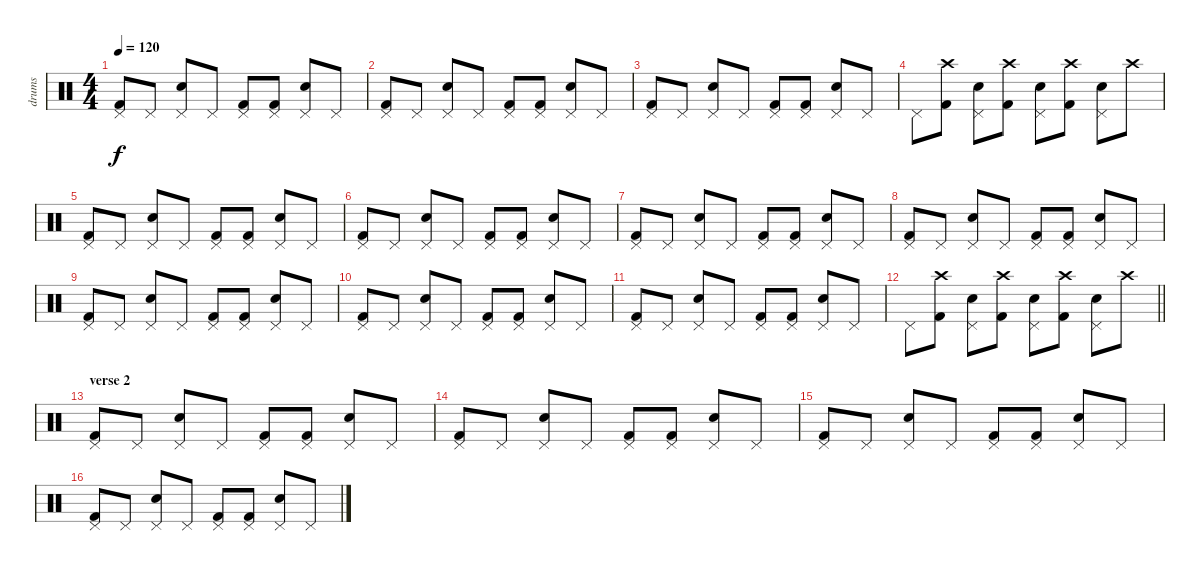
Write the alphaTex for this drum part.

\track ("drums" "drums") {instrument percussion}
\staff {score}
\articulation defaults
\ts (4 4)
\tempo 120
\clef neutral
\ks c
("Kick (hit) 2" "Pedal Hi-Hat (hit)").8{dy f} "Pedal Hi-Hat (hit)".8 ("Electric Snare (hit)" "Pedal Hi-Hat (hit)").8 "Pedal Hi-Hat (hit)".8 ("Kick (hit) 2" "Pedal Hi-Hat (hit)").8 ("Kick (hit) 2" "Pedal Hi-Hat (hit)").8 ("Electric Snare (hit)" "Pedal Hi-Hat (hit)").8 "Pedal Hi-Hat (hit)".8 |
("Kick (hit) 2" "Pedal Hi-Hat (hit)").8 "Pedal Hi-Hat (hit)".8 ("Electric Snare (hit)" "Pedal Hi-Hat (hit)").8 "Pedal Hi-Hat (hit)".8 ("Kick (hit) 2" "Pedal Hi-Hat (hit)").8 ("Kick (hit) 2" "Pedal Hi-Hat (hit)").8 ("Electric Snare (hit)" "Pedal Hi-Hat (hit)").8 "Pedal Hi-Hat (hit)".8 |
("Kick (hit) 2" "Pedal Hi-Hat (hit)").8 "Pedal Hi-Hat (hit)".8 ("Electric Snare (hit)" "Pedal Hi-Hat (hit)").8 "Pedal Hi-Hat (hit)".8 ("Kick (hit) 2" "Pedal Hi-Hat (hit)").8 ("Kick (hit) 2" "Pedal Hi-Hat (hit)").8 ("Electric Snare (hit)" "Pedal Hi-Hat (hit)").8 "Pedal Hi-Hat (hit)".8 |
"Pedal Hi-Hat (hit)".8 ("Kick (hit) 2" "Crash high (hit)").8 ("Electric Snare (hit)" "Pedal Hi-Hat (hit)").8 ("Kick (hit) 2" "Crash high (hit)").8 ("Electric Snare (hit)" "Pedal Hi-Hat (hit)").8 ("Kick (hit) 2" "Crash high (hit)").8 ("Electric Snare (hit)" "Pedal Hi-Hat (hit)").8 "Crash high (hit)".8 |
("Kick (hit) 2" "Pedal Hi-Hat (hit)").8 "Pedal Hi-Hat (hit)".8 ("Electric Snare (hit)" "Pedal Hi-Hat (hit)").8 "Pedal Hi-Hat (hit)".8 ("Kick (hit) 2" "Pedal Hi-Hat (hit)").8 ("Kick (hit) 2" "Pedal Hi-Hat (hit)").8 ("Electric Snare (hit)" "Pedal Hi-Hat (hit)").8 "Pedal Hi-Hat (hit)".8 |
("Kick (hit) 2" "Pedal Hi-Hat (hit)").8 "Pedal Hi-Hat (hit)".8 ("Electric Snare (hit)" "Pedal Hi-Hat (hit)").8 "Pedal Hi-Hat (hit)".8 ("Kick (hit) 2" "Pedal Hi-Hat (hit)").8 ("Kick (hit) 2" "Pedal Hi-Hat (hit)").8 ("Electric Snare (hit)" "Pedal Hi-Hat (hit)").8 "Pedal Hi-Hat (hit)".8 |
("Kick (hit) 2" "Pedal Hi-Hat (hit)").8 "Pedal Hi-Hat (hit)".8 ("Electric Snare (hit)" "Pedal Hi-Hat (hit)").8 "Pedal Hi-Hat (hit)".8 ("Kick (hit) 2" "Pedal Hi-Hat (hit)").8 ("Kick (hit) 2" "Pedal Hi-Hat (hit)").8 ("Electric Snare (hit)" "Pedal Hi-Hat (hit)").8 "Pedal Hi-Hat (hit)".8 |
("Kick (hit) 2" "Pedal Hi-Hat (hit)").8 "Pedal Hi-Hat (hit)".8 ("Electric Snare (hit)" "Pedal Hi-Hat (hit)").8 "Pedal Hi-Hat (hit)".8 ("Kick (hit) 2" "Pedal Hi-Hat (hit)").8 ("Kick (hit) 2" "Pedal Hi-Hat (hit)").8 ("Electric Snare (hit)" "Pedal Hi-Hat (hit)").8 "Pedal Hi-Hat (hit)".8 |
("Kick (hit) 2" "Pedal Hi-Hat (hit)").8 "Pedal Hi-Hat (hit)".8 ("Electric Snare (hit)" "Pedal Hi-Hat (hit)").8 "Pedal Hi-Hat (hit)".8 ("Kick (hit) 2" "Pedal Hi-Hat (hit)").8 ("Kick (hit) 2" "Pedal Hi-Hat (hit)").8 ("Electric Snare (hit)" "Pedal Hi-Hat (hit)").8 "Pedal Hi-Hat (hit)".8 |
("Kick (hit) 2" "Pedal Hi-Hat (hit)").8 "Pedal Hi-Hat (hit)".8 ("Electric Snare (hit)" "Pedal Hi-Hat (hit)").8 "Pedal Hi-Hat (hit)".8 ("Kick (hit) 2" "Pedal Hi-Hat (hit)").8 ("Kick (hit) 2" "Pedal Hi-Hat (hit)").8 ("Electric Snare (hit)" "Pedal Hi-Hat (hit)").8 "Pedal Hi-Hat (hit)".8 |
("Kick (hit) 2" "Pedal Hi-Hat (hit)").8 "Pedal Hi-Hat (hit)".8 ("Electric Snare (hit)" "Pedal Hi-Hat (hit)").8 "Pedal Hi-Hat (hit)".8 ("Kick (hit) 2" "Pedal Hi-Hat (hit)").8 ("Kick (hit) 2" "Pedal Hi-Hat (hit)").8 ("Electric Snare (hit)" "Pedal Hi-Hat (hit)").8 "Pedal Hi-Hat (hit)".8 |
\barLineRight lightlight "Pedal Hi-Hat (hit)".8
("Kick (hit) 2" "Crash high (hit)").8 ("Electric Snare (hit)" "Pedal Hi-Hat (hit)").8 ("Kick (hit) 2" "Crash high (hit)").8 ("Electric Snare (hit)" "Pedal Hi-Hat (hit)").8 ("Kick (hit) 2" "Crash high (hit)").8 ("Electric Snare (hit)" "Pedal Hi-Hat (hit)").8 "Crash high (hit)".8 |
\section ("" "verse 2")
("Kick (hit) 2" "Pedal Hi-Hat (hit)").8 "Pedal Hi-Hat (hit)".8 ("Electric Snare (hit)" "Pedal Hi-Hat (hit)").8 "Pedal Hi-Hat (hit)".8 ("Kick (hit) 2" "Pedal Hi-Hat (hit)").8 ("Kick (hit) 2" "Pedal Hi-Hat (hit)").8 ("Electric Snare (hit)" "Pedal Hi-Hat (hit)").8 "Pedal Hi-Hat (hit)".8 |
("Kick (hit) 2" "Pedal Hi-Hat (hit)").8 "Pedal Hi-Hat (hit)".8 ("Electric Snare (hit)" "Pedal Hi-Hat (hit)").8 "Pedal Hi-Hat (hit)".8 ("Kick (hit) 2" "Pedal Hi-Hat (hit)").8 ("Kick (hit) 2" "Pedal Hi-Hat (hit)").8 ("Electric Snare (hit)" "Pedal Hi-Hat (hit)").8 "Pedal Hi-Hat (hit)".8 |
("Kick (hit) 2" "Pedal Hi-Hat (hit)").8 "Pedal Hi-Hat (hit)".8 ("Electric Snare (hit)" "Pedal Hi-Hat (hit)").8 "Pedal Hi-Hat (hit)".8 ("Kick (hit) 2" "Pedal Hi-Hat (hit)").8 ("Kick (hit) 2" "Pedal Hi-Hat (hit)").8 ("Electric Snare (hit)" "Pedal Hi-Hat (hit)").8 "Pedal Hi-Hat (hit)".8 |
("Kick (hit) 2" "Pedal Hi-Hat (hit)").8 "Pedal Hi-Hat (hit)".8 ("Electric Snare (hit)" "Pedal Hi-Hat (hit)").8 "Pedal Hi-Hat (hit)".8 ("Kick (hit) 2" "Pedal Hi-Hat (hit)").8 ("Kick (hit) 2" "Pedal Hi-Hat (hit)").8 ("Electric Snare (hit)" "Pedal Hi-Hat (hit)").8 "Pedal Hi-Hat (hit)".8
